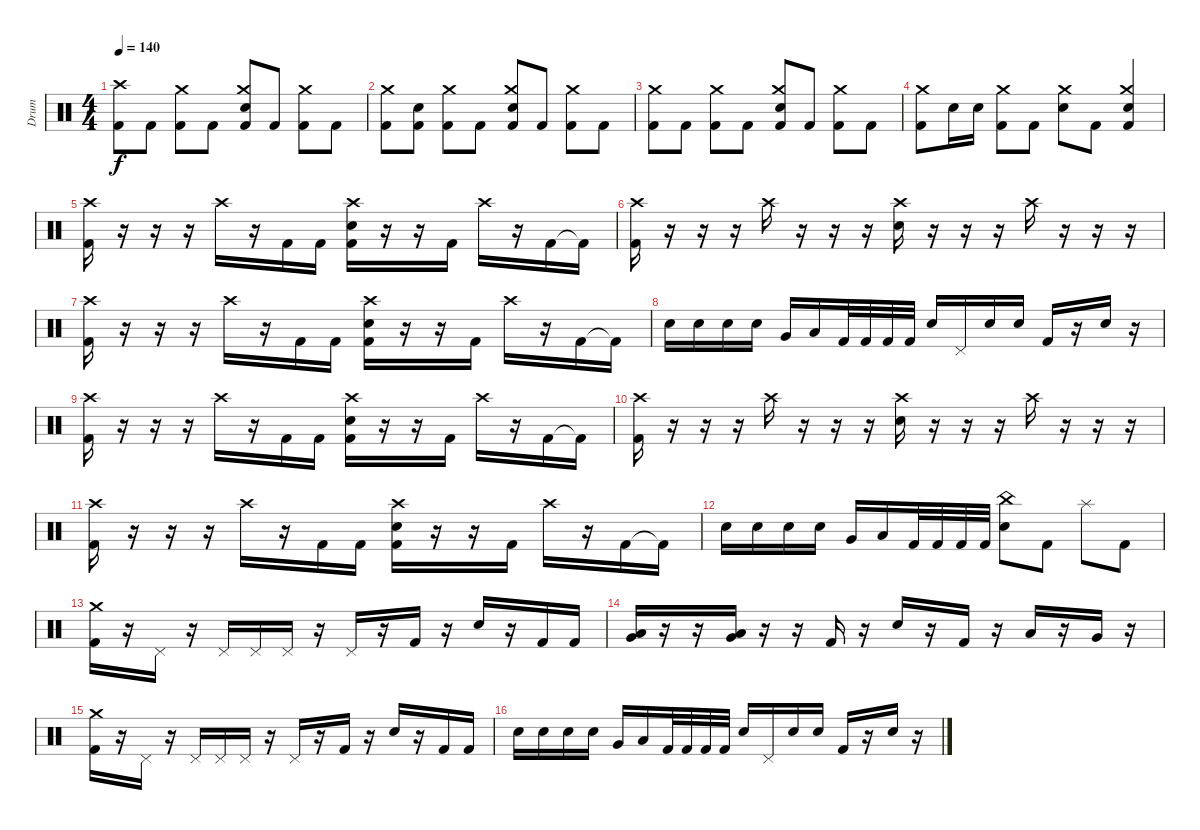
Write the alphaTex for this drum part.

\track ("Drum" "Drum") {instrument percussion}
\staff {score}
\articulation defaults
\ts (4 4)
\tempo 140
\clef neutral
\ks c
("Crash high (hit)" "Kick (hit) 2").8{dy f} "Kick (hit) 2".8 ("Crash medium (hit)" "Kick (hit) 2").8 "Kick (hit) 2".8 ("Crash medium (hit)" "Electric Snare (hit)" "Kick (hit) 2").8 "Kick (hit) 2".8 ("Crash medium (hit)" "Kick (hit) 2").8 "Kick (hit) 2".8 |
("Crash medium (hit)" "Kick (hit) 2").8 ("Electric Snare (hit)" "Kick (hit) 2").8 ("Crash medium (hit)" "Kick (hit) 2").8 "Kick (hit) 2".8 ("Crash medium (hit)" "Electric Snare (hit)" "Kick (hit) 2").8 "Kick (hit) 2".8 ("Crash medium (hit)" "Kick (hit) 2").8 "Kick (hit) 2".8 |
("Crash medium (hit)" "Kick (hit) 2").8 "Kick (hit) 2".8 ("Crash medium (hit)" "Kick (hit) 2").8 "Kick (hit) 2".8 ("Crash medium (hit)" "Electric Snare (hit)" "Kick (hit) 2").8 "Kick (hit) 2".8 ("Crash medium (hit)" "Kick (hit) 2").8 "Kick (hit) 2".8 |
("Crash medium (hit)" "Kick (hit) 2").8 "Electric Snare (hit)".16 "Electric Snare (hit)".16 ("Crash medium (hit)" "Kick (hit) 2").8 "Kick (hit) 2".8 ("Crash medium (hit)" "Electric Snare (hit)").8 "Kick (hit) 2".8 ("Crash medium (hit)" "Electric Snare (hit)" "Kick (hit) 2").4 |
("Crash high (hit)" "Kick (hit) 2").16 r.16 r.16 r.16 "Crash high (hit)".16 r.16 "Kick (hit) 2".16 "Kick (hit) 2".16 ("Crash high (hit)" "Electric Snare (hit)" "Kick (hit) 2").16 r.16 r.16 "Kick (hit) 2".16 "Crash high (hit)".16 r.16 "Kick (hit) 2".16 "Kick (hit) 2"{t}.16 |
("Crash high (hit)" "Kick (hit) 2").16 r.16 r.16 r.16 "Crash high (hit)".16 r.16 r.16 r.16 ("Crash high (hit)" "Electric Snare (hit)").16 r.16 r.16 r.16 "Crash high (hit)".16 r.16 r.16 r.16 |
("Crash high (hit)" "Kick (hit) 2").16 r.16 r.16 r.16 "Crash high (hit)".16 r.16 "Kick (hit) 2".16 "Kick (hit) 2".16 ("Crash high (hit)" "Electric Snare (hit)" "Kick (hit) 2").16 r.16 r.16 "Kick (hit) 2".16 "Crash high (hit)".16 r.16 "Kick (hit) 2".16 "Kick (hit) 2"{t}.16 |
"Electric Snare (hit)".16 "Electric Snare (hit)".16 "Electric Snare (hit)".16 "Electric Snare (hit)".16 "Very Low Tom (hit)".16 "Low Floor Tom (hit)".16 "Kick (hit) 2".32 "Kick (hit) 2".32 "Kick (hit) 2".32 "Kick (hit) 2".32 "Electric Snare (hit)".16 "Pedal Hi-Hat (hit)".16 "Electric Snare (hit)".16 "Electric Snare (hit)".16 "Kick (hit) 2".16 r.16 "Electric Snare (hit)".16 r.16 |
("Crash high (hit)" "Kick (hit) 2").16 r.16 r.16 r.16 "Crash high (hit)".16 r.16 "Kick (hit) 2".16 "Kick (hit) 2".16 ("Crash high (hit)" "Electric Snare (hit)" "Kick (hit) 2").16 r.16 r.16 "Kick (hit) 2".16 "Crash high (hit)".16 r.16 "Kick (hit) 2".16 "Kick (hit) 2"{t}.16 |
("Crash high (hit)" "Kick (hit) 2").16 r.16 r.16 r.16 "Crash high (hit)".16 r.16 r.16 r.16 ("Crash high (hit)" "Electric Snare (hit)").16 r.16 r.16 r.16 "Crash high (hit)".16 r.16 r.16 r.16 |
("Crash high (hit)" "Kick (hit) 2").16 r.16 r.16 r.16 "Crash high (hit)".16 r.16 "Kick (hit) 2".16 "Kick (hit) 2".16 ("Crash high (hit)" "Electric Snare (hit)" "Kick (hit) 2").16 r.16 r.16 "Kick (hit) 2".16 "Crash high (hit)".16 r.16 "Kick (hit) 2".16 "Kick (hit) 2"{t}.16 |
"Electric Snare (hit)".16 "Electric Snare (hit)".16 "Electric Snare (hit)".16 "Electric Snare (hit)".16 "Very Low Tom (hit)".16 "Low Floor Tom (hit)".16 "Kick (hit) 2".32 "Kick (hit) 2".32 "Kick (hit) 2".32 "Kick (hit) 2".32 ("China (hit)" "Electric Snare (hit)").8 "Kick (hit) 2".8 "Splash (hit)".8 "Kick (hit) 2".8 |
("Crash medium (hit)" "Kick (hit) 2").16 r.16 "Pedal Hi-Hat (hit)".16 r.16 "Pedal Hi-Hat (hit)".16 "Pedal Hi-Hat (hit)".16 "Pedal Hi-Hat (hit)".16 r.16 "Pedal Hi-Hat (hit)".16 r.16 "Kick (hit) 2".16 r.16 "Electric Snare (hit)".16 r.16 "Kick (hit) 2".16 "Kick (hit) 2".16 |
("Low Tom (hit)" "Very Low Tom (hit)").16 r.16 r.16 ("Very Low Tom (hit)" "Low Floor Tom (hit)").16 r.16 r.16 "Kick (hit) 2".16 r.16 "Electric Snare (hit)".16 r.16 "Kick (hit) 2".16 r.16 "Low Tom (hit)".16 r.16 "Very Low Tom (hit)".16 r.16 |
("Crash medium (hit)" "Kick (hit) 2").16 r.16 "Pedal Hi-Hat (hit)".16 r.16 "Pedal Hi-Hat (hit)".16 "Pedal Hi-Hat (hit)".16 "Pedal Hi-Hat (hit)".16 r.16 "Pedal Hi-Hat (hit)".16 r.16 "Kick (hit) 2".16 r.16 "Electric Snare (hit)".16 r.16 "Kick (hit) 2".16 "Kick (hit) 2".16 |
"Electric Snare (hit)".16 "Electric Snare (hit)".16 "Electric Snare (hit)".16 "Electric Snare (hit)".16 "Very Low Tom (hit)".16 "Low Floor Tom (hit)".16 "Kick (hit) 2".32 "Kick (hit) 2".32 "Kick (hit) 2".32 "Kick (hit) 2".32 "Electric Snare (hit)".16 "Pedal Hi-Hat (hit)".16 "Electric Snare (hit)".16 "Electric Snare (hit)".16 "Kick (hit) 2".16 r.16 "Electric Snare (hit)".16 r.16
